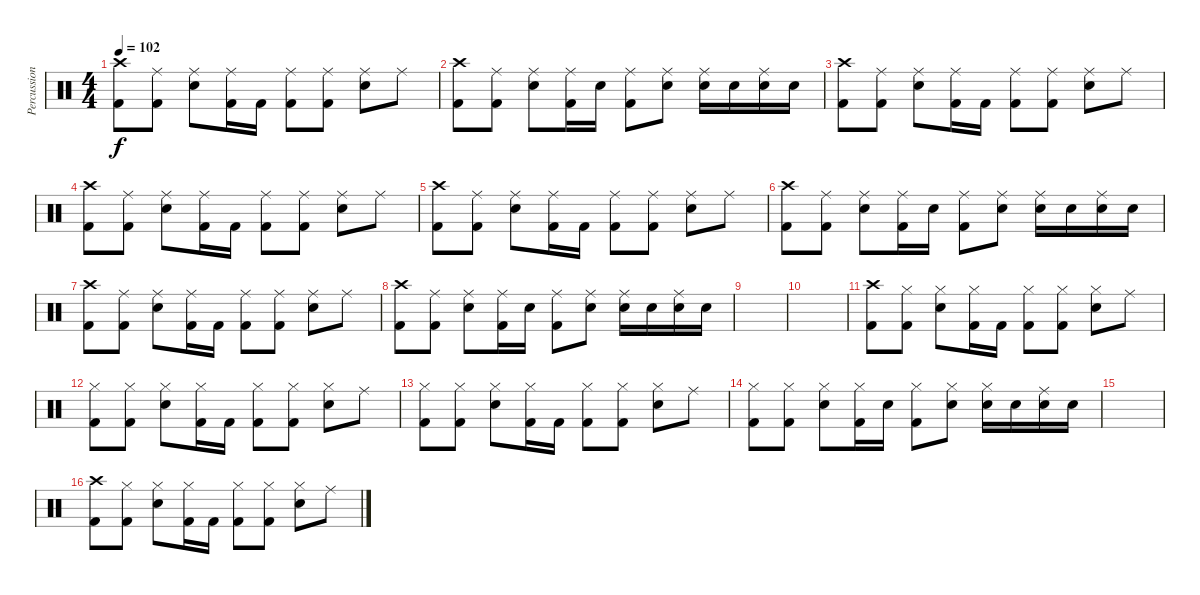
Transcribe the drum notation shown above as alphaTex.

\track ("Percussion" "Percussion") {instrument percussion}
\staff {score}
\articulation defaults
\ts (4 4)
\tempo 102
\clef neutral
\ks c
("Crash high (hit)" "Kick (hit) 2").8{dy f} ("Ride (middle)" "Kick (hit) 2").8 ("Ride (middle)" "Snare (hit) 2").8 ("Ride (middle)" "Kick (hit) 2").16 "Kick (hit) 2".16 ("Ride (middle)" "Kick (hit) 2").8 ("Ride (middle)" "Kick (hit) 2").8 ("Ride (middle)" "Snare (hit) 2").8 "Ride (middle)".8 |
("Crash high (hit)" "Kick (hit) 2").8 ("Ride (middle)" "Kick (hit) 2").8 ("Ride (middle)" "Snare (hit) 2").8 ("Ride (middle)" "Kick (hit) 2").16 "Snare (hit) 2".16 ("Ride (middle)" "Kick (hit) 2").8 ("Ride (middle)" "Snare (hit) 2").8 ("Ride (middle)" "Snare (hit) 2").16 "Snare (hit) 2".16 ("Ride (middle)" "Snare (hit) 2").16 "Snare (hit) 2".16 |
("Crash high (hit)" "Kick (hit) 2").8 ("Ride (middle)" "Kick (hit) 2").8 ("Ride (middle)" "Snare (hit) 2").8 ("Ride (middle)" "Kick (hit) 2").16 "Kick (hit) 2".16 ("Ride (middle)" "Kick (hit) 2").8 ("Ride (middle)" "Kick (hit) 2").8 ("Ride (middle)" "Snare (hit) 2").8 "Ride (middle)".8 |
("Crash high (hit)" "Kick (hit) 2").8 ("Ride (middle)" "Kick (hit) 2").8 ("Ride (middle)" "Snare (hit) 2").8 ("Ride (middle)" "Kick (hit) 2").16 "Kick (hit) 2".16 ("Ride (middle)" "Kick (hit) 2").8 ("Ride (middle)" "Kick (hit) 2").8 ("Ride (middle)" "Snare (hit) 2").8 "Ride (middle)".8 |
("Crash high (hit)" "Kick (hit) 2").8 ("Ride (middle)" "Kick (hit) 2").8 ("Ride (middle)" "Snare (hit) 2").8 ("Ride (middle)" "Kick (hit) 2").16 "Kick (hit) 2".16 ("Ride (middle)" "Kick (hit) 2").8 ("Ride (middle)" "Kick (hit) 2").8 ("Ride (middle)" "Snare (hit) 2").8 "Ride (middle)".8 |
("Crash high (hit)" "Kick (hit) 2").8 ("Ride (middle)" "Kick (hit) 2").8 ("Ride (middle)" "Snare (hit) 2").8 ("Ride (middle)" "Kick (hit) 2").16 "Snare (hit) 2".16 ("Ride (middle)" "Kick (hit) 2").8 ("Ride (middle)" "Snare (hit) 2").8 ("Ride (middle)" "Snare (hit) 2").16 "Snare (hit) 2".16 ("Ride (middle)" "Snare (hit) 2").16 "Snare (hit) 2".16 |
("Crash high (hit)" "Kick (hit) 2").8 ("Ride (middle)" "Kick (hit) 2").8 ("Ride (middle)" "Snare (hit) 2").8 ("Ride (middle)" "Kick (hit) 2").16 "Kick (hit) 2".16 ("Ride (middle)" "Kick (hit) 2").8 ("Ride (middle)" "Kick (hit) 2").8 ("Ride (middle)" "Snare (hit) 2").8 "Ride (middle)".8 |
("Crash high (hit)" "Kick (hit) 2").8 ("Ride (middle)" "Kick (hit) 2").8 ("Ride (middle)" "Snare (hit) 2").8 ("Ride (middle)" "Kick (hit) 2").16 "Snare (hit) 2".16 ("Ride (middle)" "Kick (hit) 2").8 ("Ride (middle)" "Snare (hit) 2").8 ("Ride (middle)" "Snare (hit) 2").16 "Snare (hit) 2".16 ("Ride (middle)" "Snare (hit) 2").16 "Snare (hit) 2".16 |
|
|
("Crash high (hit)" "Kick (hit) 2").8 ("Hi-Hat (closed)" "Kick (hit) 2").8 ("Hi-Hat (closed)" "Snare (hit) 2").8 ("Hi-Hat (closed)" "Kick (hit) 2").16 "Kick (hit) 2".16 ("Hi-Hat (closed)" "Kick (hit) 2").8 ("Hi-Hat (closed)" "Kick (hit) 2").8 ("Hi-Hat (closed)" "Snare (hit) 2").8 "Ride (middle)".8 |
("Hi-Hat (closed)" "Kick (hit) 2").8 ("Hi-Hat (closed)" "Kick (hit) 2").8 ("Hi-Hat (closed)" "Snare (hit) 2").8 ("Hi-Hat (closed)" "Kick (hit) 2").16 "Kick (hit) 2".16 ("Hi-Hat (closed)" "Kick (hit) 2").8 ("Hi-Hat (closed)" "Kick (hit) 2").8 ("Hi-Hat (closed)" "Snare (hit) 2").8 "Ride (middle)".8 |
("Hi-Hat (closed)" "Kick (hit) 2").8 ("Hi-Hat (closed)" "Kick (hit) 2").8 ("Hi-Hat (closed)" "Snare (hit) 2").8 ("Hi-Hat (closed)" "Kick (hit) 2").16 "Kick (hit) 2".16 ("Hi-Hat (closed)" "Kick (hit) 2").8 ("Hi-Hat (closed)" "Kick (hit) 2").8 ("Hi-Hat (closed)" "Snare (hit) 2").8 "Ride (middle)".8 |
("Hi-Hat (closed)" "Kick (hit) 2").8 ("Hi-Hat (closed)" "Kick (hit) 2").8 ("Hi-Hat (closed)" "Snare (hit) 2").8 ("Hi-Hat (closed)" "Kick (hit) 2").16 "Snare (hit) 2".16 ("Hi-Hat (closed)" "Kick (hit) 2").8 ("Hi-Hat (closed)" "Snare (hit) 2").8 ("Hi-Hat (closed)" "Snare (hit) 2").16 "Snare (hit) 2".16 ("Ride (middle)" "Snare (hit) 2").16 "Snare (hit) 2".16 |
|
("Crash high (hit)" "Kick (hit) 2").8 ("Hi-Hat (closed)" "Kick (hit) 2").8 ("Hi-Hat (closed)" "Snare (hit) 2").8 ("Hi-Hat (closed)" "Kick (hit) 2").16 "Kick (hit) 2".16 ("Hi-Hat (closed)" "Kick (hit) 2").8 ("Hi-Hat (closed)" "Kick (hit) 2").8 ("Hi-Hat (closed)" "Snare (hit) 2").8 "Ride (middle)".8
